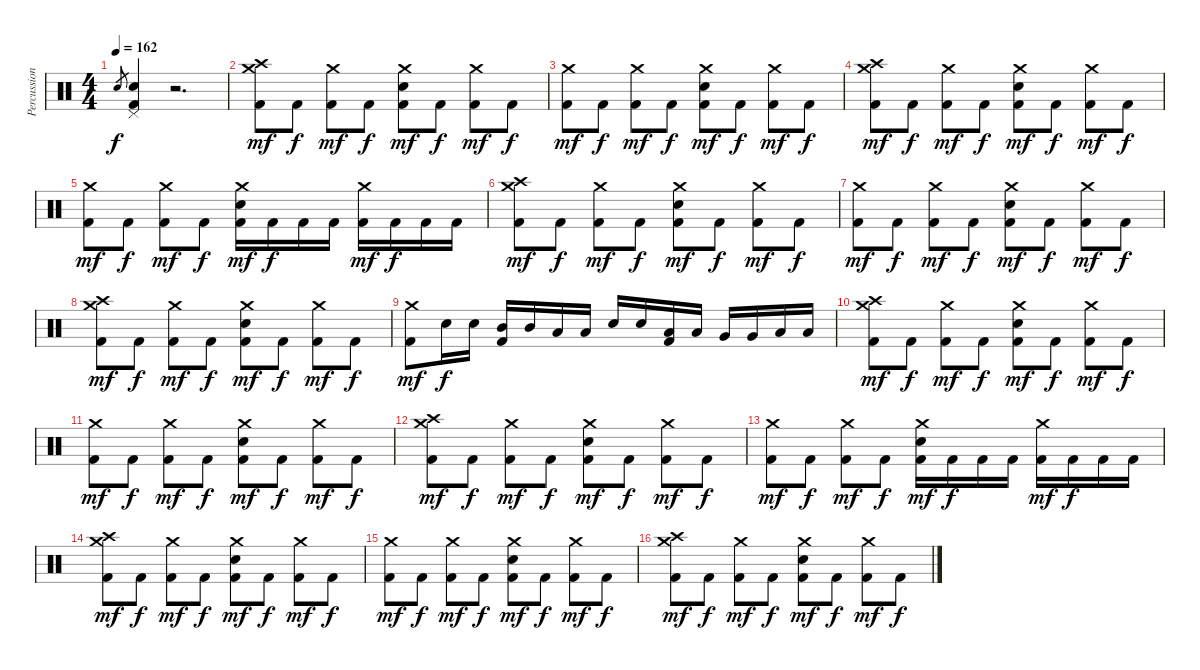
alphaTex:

\track ("Percussion" "Percussion") {instrument percussion}
\staff {score}
\articulation defaults
\ts (4 4)
\tempo 162
\clef neutral
\ks c "Snare (hit) 2".8{gr dy f}
("Kick (hit) 2" "Snare (hit) 2" "Pedal Hi-Hat (hit)").4 r.2{d} |
("Kick (hit) 2" "Crash high (hit)" "Crash medium (hit)").8{dy mf} "Kick (hit) 2".8{dy f} ("Kick (hit) 2" "Crash medium (hit)").8{dy mf} "Kick (hit) 2".8{dy f} ("Kick (hit) 2" "Snare (hit) 2" "Crash medium (hit)").8{dy mf} "Kick (hit) 2".8{dy f} ("Kick (hit) 2" "Crash medium (hit)").8{dy mf} "Kick (hit) 2".8{dy f} |
("Kick (hit) 2" "Crash medium (hit)").8{dy mf} "Kick (hit) 2".8{dy f} ("Kick (hit) 2" "Crash medium (hit)").8{dy mf} "Kick (hit) 2".8{dy f} ("Kick (hit) 2" "Snare (hit) 2" "Crash medium (hit)").8{dy mf} "Kick (hit) 2".8{dy f} ("Kick (hit) 2" "Crash medium (hit)").8{dy mf} "Kick (hit) 2".8{dy f} |
("Kick (hit) 2" "Crash high (hit)" "Crash medium (hit)").8{dy mf} "Kick (hit) 2".8{dy f} ("Kick (hit) 2" "Crash medium (hit)").8{dy mf} "Kick (hit) 2".8{dy f} ("Kick (hit) 2" "Snare (hit) 2" "Crash medium (hit)").8{dy mf} "Kick (hit) 2".8{dy f} ("Kick (hit) 2" "Crash medium (hit)").8{dy mf} "Kick (hit) 2".8{dy f} |
("Kick (hit) 2" "Crash medium (hit)").8{dy mf} "Kick (hit) 2".8{dy f} ("Kick (hit) 2" "Crash medium (hit)").8{dy mf} "Kick (hit) 2".8{dy f} ("Kick (hit) 2" "Snare (hit) 2" "Crash medium (hit)").16{dy mf} "Kick (hit) 2".16{dy f} "Kick (hit) 2".16 "Kick (hit) 2".16 ("Kick (hit) 2" "Crash medium (hit)").16{dy mf} "Kick (hit) 2".16{dy f} "Kick (hit) 2".16 "Kick (hit) 2".16 |
("Kick (hit) 2" "Crash high (hit)" "Crash medium (hit)").8{dy mf} "Kick (hit) 2".8{dy f} ("Kick (hit) 2" "Crash medium (hit)").8{dy mf} "Kick (hit) 2".8{dy f} ("Kick (hit) 2" "Snare (hit) 2" "Crash medium (hit)").8{dy mf} "Kick (hit) 2".8{dy f} ("Kick (hit) 2" "Crash medium (hit)").8{dy mf} "Kick (hit) 2".8{dy f} |
("Kick (hit) 2" "Crash medium (hit)").8{dy mf} "Kick (hit) 2".8{dy f} ("Kick (hit) 2" "Crash medium (hit)").8{dy mf} "Kick (hit) 2".8{dy f} ("Kick (hit) 2" "Snare (hit) 2" "Crash medium (hit)").8{dy mf} "Kick (hit) 2".8{dy f} ("Kick (hit) 2" "Crash medium (hit)").8{dy mf} "Kick (hit) 2".8{dy f} |
("Kick (hit) 2" "Crash high (hit)" "Crash medium (hit)").8{dy mf} "Kick (hit) 2".8{dy f} ("Kick (hit) 2" "Crash medium (hit)").8{dy mf} "Kick (hit) 2".8{dy f} ("Kick (hit) 2" "Snare (hit) 2" "Crash medium (hit)").8{dy mf} "Kick (hit) 2".8{dy f} ("Kick (hit) 2" "Crash medium (hit)").8{dy mf} "Kick (hit) 2".8{dy f} |
("Kick (hit) 2" "Crash medium (hit)").8{dy mf} "Snare (hit) 2".16{dy f} "Snare (hit) 2".16 ("Kick (hit) 2" "Mid Tom (hit)").16 "Mid Tom (hit)".16 "Low Tom (hit)".16 "Low Tom (hit)".16 "Snare (hit) 2".16 "Snare (hit) 2".16 ("Kick (hit) 2" "Low Tom (hit)").16 "Low Tom (hit)".16 "Very Low Tom (hit)".16 "Very Low Tom (hit)".16 "Low Floor Tom (hit)".16 "Low Floor Tom (hit)".16 |
("Kick (hit) 2" "Crash high (hit)" "Crash medium (hit)").8{dy mf} "Kick (hit) 2".8{dy f} ("Kick (hit) 2" "Crash medium (hit)").8{dy mf} "Kick (hit) 2".8{dy f} ("Kick (hit) 2" "Snare (hit) 2" "Crash medium (hit)").8{dy mf} "Kick (hit) 2".8{dy f} ("Kick (hit) 2" "Crash medium (hit)").8{dy mf} "Kick (hit) 2".8{dy f} |
("Kick (hit) 2" "Crash medium (hit)").8{dy mf} "Kick (hit) 2".8{dy f} ("Kick (hit) 2" "Crash medium (hit)").8{dy mf} "Kick (hit) 2".8{dy f} ("Kick (hit) 2" "Snare (hit) 2" "Crash medium (hit)").8{dy mf} "Kick (hit) 2".8{dy f} ("Kick (hit) 2" "Crash medium (hit)").8{dy mf} "Kick (hit) 2".8{dy f} |
("Kick (hit) 2" "Crash high (hit)" "Crash medium (hit)").8{dy mf} "Kick (hit) 2".8{dy f} ("Kick (hit) 2" "Crash medium (hit)").8{dy mf} "Kick (hit) 2".8{dy f} ("Kick (hit) 2" "Snare (hit) 2" "Crash medium (hit)").8{dy mf} "Kick (hit) 2".8{dy f} ("Kick (hit) 2" "Crash medium (hit)").8{dy mf} "Kick (hit) 2".8{dy f} |
("Kick (hit) 2" "Crash medium (hit)").8{dy mf} "Kick (hit) 2".8{dy f} ("Kick (hit) 2" "Crash medium (hit)").8{dy mf} "Kick (hit) 2".8{dy f} ("Kick (hit) 2" "Snare (hit) 2" "Crash medium (hit)").16{dy mf} "Kick (hit) 2".16{dy f} "Kick (hit) 2".16 "Kick (hit) 2".16 ("Kick (hit) 2" "Crash medium (hit)").16{dy mf} "Kick (hit) 2".16{dy f} "Kick (hit) 2".16 "Kick (hit) 2".16 |
("Kick (hit) 2" "Crash high (hit)" "Crash medium (hit)").8{dy mf} "Kick (hit) 2".8{dy f} ("Kick (hit) 2" "Crash medium (hit)").8{dy mf} "Kick (hit) 2".8{dy f} ("Kick (hit) 2" "Snare (hit) 2" "Crash medium (hit)").8{dy mf} "Kick (hit) 2".8{dy f} ("Kick (hit) 2" "Crash medium (hit)").8{dy mf} "Kick (hit) 2".8{dy f} |
("Kick (hit) 2" "Crash medium (hit)").8{dy mf} "Kick (hit) 2".8{dy f} ("Kick (hit) 2" "Crash medium (hit)").8{dy mf} "Kick (hit) 2".8{dy f} ("Kick (hit) 2" "Snare (hit) 2" "Crash medium (hit)").8{dy mf} "Kick (hit) 2".8{dy f} ("Kick (hit) 2" "Crash medium (hit)").8{dy mf} "Kick (hit) 2".8{dy f} |
("Kick (hit) 2" "Crash high (hit)" "Crash medium (hit)").8{dy mf} "Kick (hit) 2".8{dy f} ("Kick (hit) 2" "Crash medium (hit)").8{dy mf} "Kick (hit) 2".8{dy f} ("Kick (hit) 2" "Snare (hit) 2" "Crash medium (hit)").8{dy mf} "Kick (hit) 2".8{dy f} ("Kick (hit) 2" "Crash medium (hit)").8{dy mf} "Kick (hit) 2".8{dy f}
